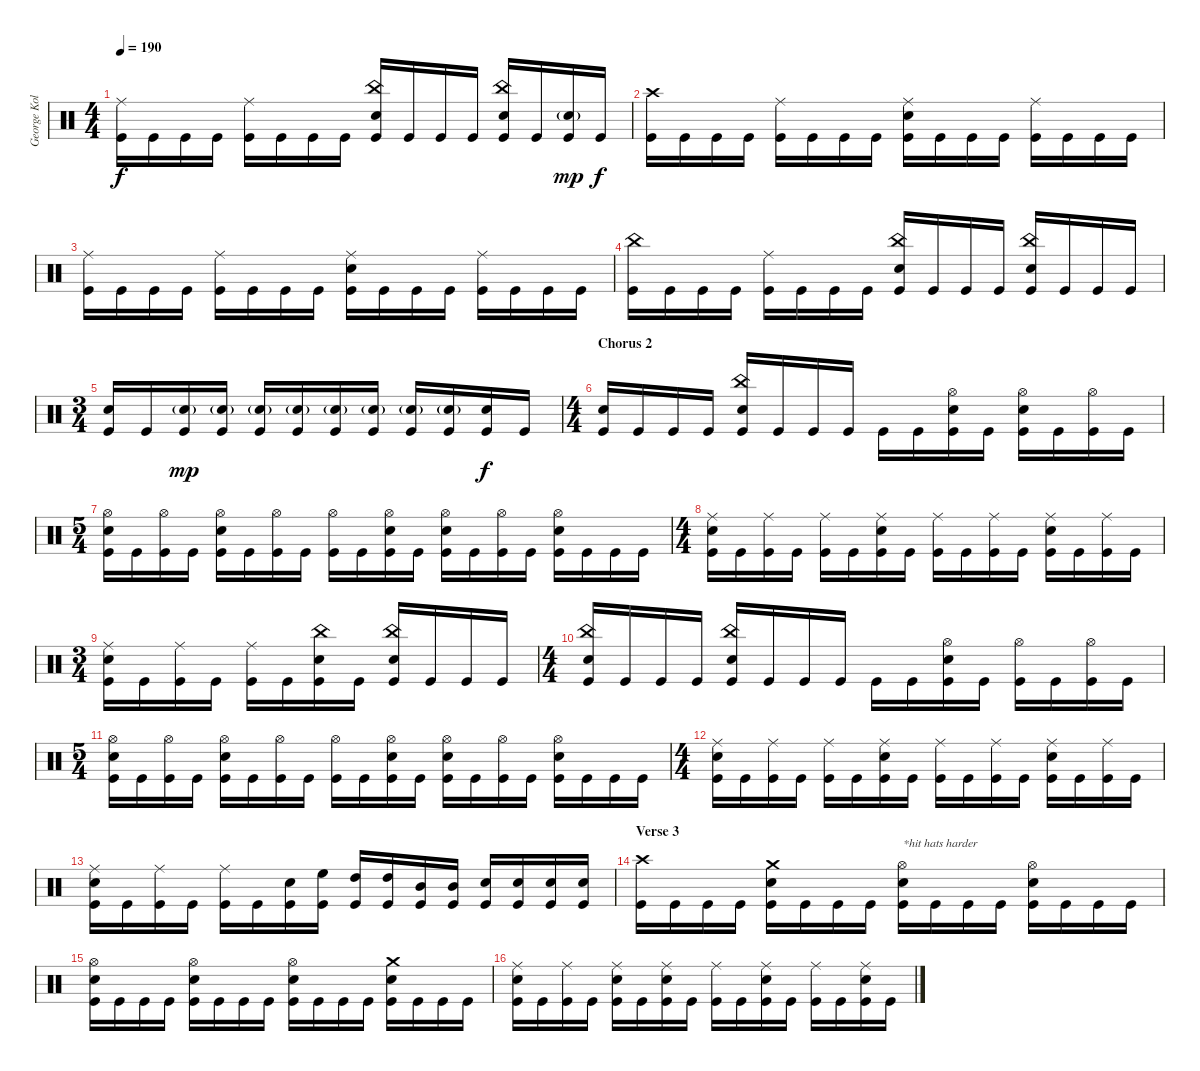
\track ("George Kollias" "George Kol") {instrument percussion}
\staff {score}
\articulation defaults
\ts (4 4)
\tempo 190
\clef neutral
\ks c
("Ride (middle)" "Kick (hit)").16{dy f} "Kick (hit)".16 "Kick (hit)".16 "Kick (hit)".16 ("Ride (middle)" "Kick (hit)").16 "Kick (hit)".16 "Kick (hit)".16 "Kick (hit)".16 ("China (hit)" "Snare (hit) 2" "Kick (hit)").16 "Kick (hit)".16 "Kick (hit)".16 "Kick (hit)".16 ("China (hit)" "Snare (hit) 2" "Kick (hit)").16 "Kick (hit)".16 ("Snare (hit) 2"{g} "Kick (hit)").16{dy mp} "Kick (hit)".16{dy f} |
("Crash high (hit)" "Kick (hit)").16 "Kick (hit)".16 "Kick (hit)".16 "Kick (hit)".16 ("Ride (middle)" "Kick (hit)").16 "Kick (hit)".16 "Kick (hit)".16 "Kick (hit)".16 ("Ride (middle)" "Snare (hit) 2" "Kick (hit)").16 "Kick (hit)".16 "Kick (hit)".16 "Kick (hit)".16 ("Ride (middle)" "Kick (hit)").16 "Kick (hit)".16 "Kick (hit)".16 "Kick (hit)".16 |
("Ride (middle)" "Kick (hit)").16 "Kick (hit)".16 "Kick (hit)".16 "Kick (hit)".16 ("Ride (middle)" "Kick (hit)").16 "Kick (hit)".16 "Kick (hit)".16 "Kick (hit)".16 ("Ride (middle)" "Snare (hit) 2" "Kick (hit)").16 "Kick (hit)".16 "Kick (hit)".16 "Kick (hit)".16 ("Ride (middle)" "Kick (hit)").16 "Kick (hit)".16 "Kick (hit)".16 "Kick (hit)".16 |
("China (hit)" "Kick (hit)").16 "Kick (hit)".16 "Kick (hit)".16 "Kick (hit)".16 ("Ride (middle)" "Kick (hit)").16 "Kick (hit)".16 "Kick (hit)".16 "Kick (hit)".16 ("China (hit)" "Snare (hit) 2" "Kick (hit)").16 "Kick (hit)".16 "Kick (hit)".16 "Kick (hit)".16 ("China (hit)" "Snare (hit) 2" "Kick (hit)").16 "Kick (hit)".16 "Kick (hit)".16 "Kick (hit)".16 |
\ts (3 4)
("Snare (hit) 2" "Kick (hit)").16 "Kick (hit)".16 ("Snare (hit) 2"{g} "Kick (hit)").16{dy mp} ("Snare (hit) 2"{g} "Kick (hit)").16 ("Snare (hit) 2"{g} "Kick (hit)").16 ("Snare (hit) 2"{g} "Kick (hit)").16 ("Snare (hit) 2"{g} "Kick (hit)").16 ("Snare (hit) 2"{g} "Kick (hit)").16 ("Snare (hit) 2"{g} "Kick (hit)").16 ("Snare (hit) 2"{g} "Kick (hit)").16 ("Snare (hit) 2" "Kick (hit)").16{dy f} "Kick (hit)".16 |
\ts (4 4)
\section ("" "Chorus 2")
("Snare (hit) 2" "Kick (hit)").16 "Kick (hit)".16 "Kick (hit)".16 "Kick (hit)".16 ("China (hit)" "Snare (hit) 2" "Kick (hit)").16 "Kick (hit)".16 "Kick (hit)".16 "Kick (hit)".16 "Kick (hit)".16 "Kick (hit)".16 ("Hi-Hat (open)" "Snare (hit) 2" "Kick (hit)").16 "Kick (hit)".16 ("Hi-Hat (open)" "Snare (hit) 2" "Kick (hit)").16 "Kick (hit)".16 ("Hi-Hat (open)" "Kick (hit)").16 "Kick (hit)".16 |
\ts (5 4)
("Hi-Hat (open)" "Snare (hit) 2" "Kick (hit)").16 "Kick (hit)".16 ("Hi-Hat (open)" "Kick (hit)").16 "Kick (hit)".16 ("Hi-Hat (open)" "Snare (hit) 2" "Kick (hit)").16 "Kick (hit)".16 ("Hi-Hat (open)" "Kick (hit)").16 "Kick (hit)".16 ("Hi-Hat (open)" "Kick (hit)").16 "Kick (hit)".16 ("Hi-Hat (open)" "Snare (hit) 2" "Kick (hit)").16 "Kick (hit)".16 ("Hi-Hat (open)" "Snare (hit) 2" "Kick (hit)").16 "Kick (hit)".16 ("Hi-Hat (open)" "Kick (hit)").16 "Kick (hit)".16 ("Hi-Hat (open)" "Snare (hit) 2" "Kick (hit)").16 "Kick (hit)".16 "Kick (hit)".16 "Kick (hit)".16 |
\ts (4 4)
("Ride (middle)" "Snare (hit) 2" "Kick (hit)").16 "Kick (hit)".16 ("Ride (middle)" "Kick (hit)").16 "Kick (hit)".16 ("Ride (middle)" "Kick (hit)").16 "Kick (hit)".16 ("Ride (middle)" "Snare (hit) 2" "Kick (hit)").16 "Kick (hit)".16 ("Ride (middle)" "Kick (hit)").16 "Kick (hit)".16 ("Ride (middle)" "Kick (hit)").16 "Kick (hit)".16 ("Ride (middle)" "Snare (hit) 2" "Kick (hit)").16 "Kick (hit)".16 ("Ride (middle)" "Kick (hit)").16 "Kick (hit)".16 |
\ts (3 4)
("Ride (middle)" "Snare (hit) 2" "Kick (hit)").16 "Kick (hit)".16 ("Ride (middle)" "Kick (hit)").16 "Kick (hit)".16 ("Ride (middle)" "Kick (hit)").16 "Kick (hit)".16 ("China (hit)" "Snare (hit) 2" "Kick (hit)").16 "Kick (hit)".16 ("China (hit)" "Snare (hit) 2" "Kick (hit)").16 "Kick (hit)".16 "Kick (hit)".16 "Kick (hit)".16 |
\ts (4 4)
("China (hit)" "Snare (hit) 2" "Kick (hit)").16 "Kick (hit)".16 "Kick (hit)".16 "Kick (hit)".16 ("China (hit)" "Snare (hit) 2" "Kick (hit)").16 "Kick (hit)".16 "Kick (hit)".16 "Kick (hit)".16 "Kick (hit)".16 "Kick (hit)".16 ("Hi-Hat (open)" "Snare (hit) 2" "Kick (hit)").16 "Kick (hit)".16 ("Hi-Hat (open)" "Kick (hit)").16 "Kick (hit)".16 ("Hi-Hat (open)" "Kick (hit)").16 "Kick (hit)".16 |
\ts (5 4)
("Hi-Hat (open)" "Snare (hit) 2" "Kick (hit)").16 "Kick (hit)".16 ("Hi-Hat (open)" "Kick (hit)").16 "Kick (hit)".16 ("Hi-Hat (open)" "Snare (hit) 2" "Kick (hit)").16 "Kick (hit)".16 ("Hi-Hat (open)" "Kick (hit)").16 "Kick (hit)".16 ("Hi-Hat (open)" "Kick (hit)").16 "Kick (hit)".16 ("Hi-Hat (open)" "Snare (hit) 2" "Kick (hit)").16 "Kick (hit)".16 ("Hi-Hat (open)" "Snare (hit) 2" "Kick (hit)").16 "Kick (hit)".16 ("Hi-Hat (open)" "Kick (hit)").16 "Kick (hit)".16 ("Hi-Hat (open)" "Snare (hit) 2" "Kick (hit)").16 "Kick (hit)".16 "Kick (hit)".16 "Kick (hit)".16 |
\ts (4 4)
("Ride (middle)" "Snare (hit) 2" "Kick (hit)").16 "Kick (hit)".16 ("Ride (middle)" "Kick (hit)").16 "Kick (hit)".16 ("Ride (middle)" "Kick (hit)").16 "Kick (hit)".16 ("Ride (middle)" "Snare (hit) 2" "Kick (hit)").16 "Kick (hit)".16 ("Ride (middle)" "Kick (hit)").16 "Kick (hit)".16 ("Ride (middle)" "Kick (hit)").16 "Kick (hit)".16 ("Ride (middle)" "Snare (hit) 2" "Kick (hit)").16 "Kick (hit)".16 ("Ride (middle)" "Kick (hit)").16 "Kick (hit)".16 |
("Ride (middle)" "Snare (hit) 2" "Kick (hit)").16 "Kick (hit)".16 ("Ride (middle)" "Kick (hit)").16 "Kick (hit)".16 ("Ride (middle)" "Kick (hit)").16 "Kick (hit)".16 ("Snare (hit) 2" "Kick (hit)").16 ("High Floor Tom (hit)" "Kick (hit)").16 ("High Tom (hit)" "Kick (hit)").16 ("High Tom (hit)" "Kick (hit)").16 ("Mid Tom (hit)" "Kick (hit)").16 ("Mid Tom (hit)" "Kick (hit)").16 ("Snare (hit) 2" "Kick (hit)").16 ("Snare (hit) 2" "Kick (hit)").16 ("Snare (hit) 2" "Kick (hit)").16 ("Snare (hit) 2" "Kick (hit)").16 |
\section ("" "Verse 3")
("Crash high (hit)" "Kick (hit)").16 "Kick (hit)".16 "Kick (hit)".16 "Kick (hit)".16 ("Crash medium (hit)" "Snare (hit) 2" "Kick (hit)").16 "Kick (hit)".16 "Kick (hit)".16 "Kick (hit)".16 ("Hi-Hat (open)" "Snare (hit) 2" "Kick (hit)").16{txt "*hit hats harder"} "Kick (hit)".16 "Kick (hit)".16 "Kick (hit)".16 ("Hi-Hat (open)" "Snare (hit) 2" "Kick (hit)").16 "Kick (hit)".16 "Kick (hit)".16 "Kick (hit)".16 |
("Hi-Hat (open)" "Snare (hit) 2" "Kick (hit)").16 "Kick (hit)".16 "Kick (hit)".16 "Kick (hit)".16 ("Hi-Hat (open)" "Snare (hit) 2" "Kick (hit)").16 "Kick (hit)".16 "Kick (hit)".16 "Kick (hit)".16 ("Hi-Hat (open)" "Snare (hit) 2" "Kick (hit)").16 "Kick (hit)".16 "Kick (hit)".16 "Kick (hit)".16 ("Crash medium (hit)" "Snare (hit) 2" "Kick (hit)").16 "Kick (hit)".16 "Kick (hit)".16 "Kick (hit)".16 |
("Ride (middle)" "Snare (hit) 2" "Kick (hit)").16 "Kick (hit)".16 ("Ride (middle)" "Kick (hit)").16 "Kick (hit)".16 ("Ride (middle)" "Snare (hit) 2" "Kick (hit)").16 "Kick (hit)".16 ("Ride (middle)" "Snare (hit) 2" "Kick (hit)").16 "Kick (hit)".16 ("Ride (middle)" "Kick (hit)").16 "Kick (hit)".16 ("Ride (middle)" "Snare (hit) 2" "Kick (hit)").16 "Kick (hit)".16 ("Ride (middle)" "Kick (hit)").16 "Kick (hit)".16 ("Ride (middle)" "Snare (hit) 2" "Kick (hit)").16 "Kick (hit)".16
